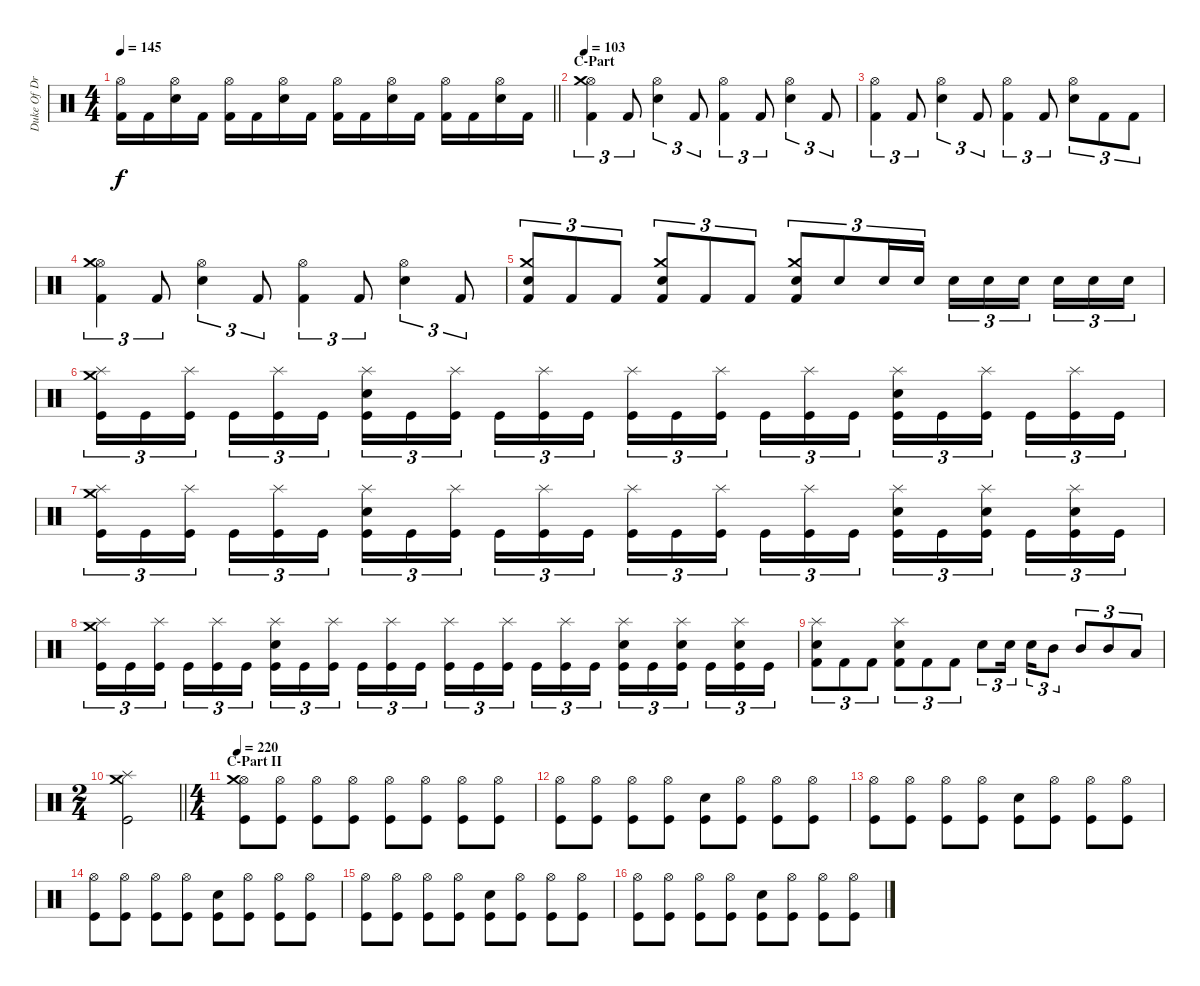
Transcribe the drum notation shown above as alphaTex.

\track ("Duke Of Drumington" "Duke Of Dr") {instrument percussion}
\staff {score}
\articulation defaults
\ts (4 4)
\tempo 145
\clef neutral
\barLineRight lightlight
\ks c
("Kick (hit) 2" "Hi-Hat (open)").16{dy f} "Kick (hit) 2".16 ("Snare (hit) 2" "Hi-Hat (open)").16 "Kick (hit) 2".16 ("Kick (hit) 2" "Hi-Hat (open)").16 "Kick (hit) 2".16 ("Snare (hit) 2" "Hi-Hat (open)").16 "Kick (hit) 2".16 ("Kick (hit) 2" "Hi-Hat (open)").16 "Kick (hit) 2".16 ("Snare (hit) 2" "Hi-Hat (open)").16 "Kick (hit) 2".16 ("Kick (hit) 2" "Hi-Hat (open)").16 "Kick (hit) 2".16 ("Snare (hit) 2" "Hi-Hat (open)").16 "Kick (hit) 2".16 |
\section ("" "C-Part")
\tempo 103
("Kick (hit) 2" "Hi-Hat (open)" "Crash medium (hit)").4{tu (3 2)} "Kick (hit) 2".8{tu (3 2)} ("Electric Snare (hit)" "Hi-Hat (open)").4{tu (3 2)} "Kick (hit) 2".8{tu (3 2)} ("Kick (hit) 2" "Hi-Hat (open)").4{tu (3 2)} "Kick (hit) 2".8{tu (3 2)} ("Electric Snare (hit)" "Hi-Hat (open)").4{tu (3 2)} "Kick (hit) 2".8{tu (3 2)} |
("Kick (hit) 2" "Hi-Hat (open)").4{tu (3 2)} "Kick (hit) 2".8{tu (3 2)} ("Electric Snare (hit)" "Hi-Hat (open)").4{tu (3 2)} "Kick (hit) 2".8{tu (3 2)} ("Kick (hit) 2" "Hi-Hat (open)").4{tu (3 2)} "Kick (hit) 2".8{tu (3 2)} ("Electric Snare (hit)" "Hi-Hat (open)").8{tu (3 2)} "Kick (hit) 2".8{tu (3 2)} "Kick (hit) 2".8{tu (3 2)} |
("Kick (hit) 2" "Hi-Hat (open)" "Crash medium (hit)").4{tu (3 2)} "Kick (hit) 2".8{tu (3 2)} ("Electric Snare (hit)" "Hi-Hat (open)").4{tu (3 2)} "Kick (hit) 2".8{tu (3 2)} ("Kick (hit) 2" "Hi-Hat (open)").4{tu (3 2)} "Kick (hit) 2".8{tu (3 2)} ("Electric Snare (hit)" "Hi-Hat (open)").4{tu (3 2)} "Kick (hit) 2".8{tu (3 2)} |
("Kick (hit) 2" "Crash medium (hit)" "Electric Snare (hit)").8{tu (3 2)} "Kick (hit) 2".8{tu (3 2)} "Kick (hit) 2".8{tu (3 2)} ("Kick (hit) 2" "Crash medium (hit)" "Electric Snare (hit)").8{tu (3 2)} "Kick (hit) 2".8{tu (3 2)} "Kick (hit) 2".8{tu (3 2)} ("Kick (hit) 2" "Crash medium (hit)" "Electric Snare (hit)").8{tu (3 2)} "Electric Snare (hit)".8{tu (3 2)} "Electric Snare (hit)".16{tu (3 2)} "Electric Snare (hit)".16{tu (3 2)} "Electric Snare (hit)".16{tu (3 2)} "Electric Snare (hit)".16{tu (3 2)} "Electric Snare (hit)".16{tu (3 2) beam splitsecondary} "Electric Snare (hit)".16{tu (3 2)} "Electric Snare (hit)".16{tu (3 2)} "Electric Snare (hit)".16{tu (3 2)} |
("Kick (hit)" "Splash (hit)" "Crash medium (hit)").16{tu (3 2)} "Kick (hit)".16{tu (3 2)} ("Kick (hit)" "Splash (hit)").16{tu (3 2) beam splitsecondary} "Kick (hit)".16{tu (3 2)} ("Kick (hit)" "Splash (hit)").16{tu (3 2)} "Kick (hit)".16{tu (3 2)} ("Kick (hit)" "Splash (hit)" "Electric Snare (hit)").16{tu (3 2)} "Kick (hit)".16{tu (3 2)} ("Kick (hit)" "Splash (hit)").16{tu (3 2) beam splitsecondary} "Kick (hit)".16{tu (3 2)} ("Kick (hit)" "Splash (hit)").16{tu (3 2)} "Kick (hit)".16{tu (3 2)} ("Kick (hit)" "Splash (hit)").16{tu (3 2)} "Kick (hit)".16{tu (3 2)} ("Kick (hit)" "Splash (hit)").16{tu (3 2) beam splitsecondary} "Kick (hit)".16{tu (3 2)} ("Kick (hit)" "Splash (hit)").16{tu (3 2)} "Kick (hit)".16{tu (3 2)} ("Kick (hit)" "Splash (hit)" "Electric Snare (hit)").16{tu (3 2)} "Kick (hit)".16{tu (3 2)} ("Kick (hit)" "Splash (hit)").16{tu (3 2) beam splitsecondary} "Kick (hit)".16{tu (3 2)} ("Kick (hit)" "Splash (hit)").16{tu (3 2)} "Kick (hit)".16{tu (3 2)} |
("Kick (hit)" "Splash (hit)" "Crash medium (hit)").16{tu (3 2)} "Kick (hit)".16{tu (3 2)} ("Kick (hit)" "Splash (hit)").16{tu (3 2) beam splitsecondary} "Kick (hit)".16{tu (3 2)} ("Kick (hit)" "Splash (hit)").16{tu (3 2)} "Kick (hit)".16{tu (3 2)} ("Kick (hit)" "Splash (hit)" "Electric Snare (hit)").16{tu (3 2)} "Kick (hit)".16{tu (3 2)} ("Kick (hit)" "Splash (hit)").16{tu (3 2) beam splitsecondary} "Kick (hit)".16{tu (3 2)} ("Kick (hit)" "Splash (hit)").16{tu (3 2)} "Kick (hit)".16{tu (3 2)} ("Kick (hit)" "Splash (hit)").16{tu (3 2)} "Kick (hit)".16{tu (3 2)} ("Kick (hit)" "Splash (hit)").16{tu (3 2) beam splitsecondary} "Kick (hit)".16{tu (3 2)} ("Kick (hit)" "Splash (hit)").16{tu (3 2)} "Kick (hit)".16{tu (3 2)} ("Kick (hit)" "Splash (hit)" "Electric Snare (hit)").16{tu (3 2)} "Kick (hit)".16{tu (3 2)} ("Kick (hit)" "Splash (hit)" "Electric Snare (hit)").16{tu (3 2) beam splitsecondary} "Kick (hit)".16{tu (3 2)} ("Kick (hit)" "Splash (hit)" "Electric Snare (hit)").16{tu (3 2)} "Kick (hit)".16{tu (3 2)} |
("Kick (hit)" "Splash (hit)" "Crash medium (hit)").16{tu (3 2)} "Kick (hit)".16{tu (3 2)} ("Kick (hit)" "Splash (hit)").16{tu (3 2) beam splitsecondary} "Kick (hit)".16{tu (3 2)} ("Kick (hit)" "Splash (hit)").16{tu (3 2)} "Kick (hit)".16{tu (3 2)} ("Kick (hit)" "Splash (hit)" "Electric Snare (hit)").16{tu (3 2)} "Kick (hit)".16{tu (3 2)} ("Kick (hit)" "Splash (hit)").16{tu (3 2) beam splitsecondary} "Kick (hit)".16{tu (3 2)} ("Kick (hit)" "Splash (hit)").16{tu (3 2)} "Kick (hit)".16{tu (3 2)} ("Kick (hit)" "Splash (hit)").16{tu (3 2)} "Kick (hit)".16{tu (3 2)} ("Kick (hit)" "Splash (hit)").16{tu (3 2) beam splitsecondary} "Kick (hit)".16{tu (3 2)} ("Kick (hit)" "Splash (hit)").16{tu (3 2)} "Kick (hit)".16{tu (3 2)} ("Kick (hit)" "Splash (hit)" "Electric Snare (hit)").16{tu (3 2)} "Kick (hit)".16{tu (3 2)} ("Kick (hit)" "Splash (hit)" "Electric Snare (hit)").16{tu (3 2) beam splitsecondary} "Kick (hit)".16{tu (3 2)} ("Kick (hit)" "Splash (hit)" "Electric Snare (hit)").16{tu (3 2)} "Kick (hit)".16{tu (3 2)} |
("Kick (hit) 2" "Electric Snare (hit)" "Splash (hit)").8{tu (3 2)} "Kick (hit) 2".8{tu (3 2)} "Kick (hit) 2".8{tu (3 2)} ("Kick (hit) 2" "Electric Snare (hit)" "Splash (hit)").8{tu (3 2)} "Kick (hit) 2".8{tu (3 2)} "Kick (hit) 2".8{tu (3 2)} "Electric Snare (hit)".8{tu (3 2)} "Electric Snare (hit)".16{tu (3 2) beam splitsecondary} "Electric Snare (hit)".16{tu (3 2)} "Mid Tom (hit)".8{tu (3 2)} "Mid Tom (hit)".8{tu (3 2)} "Mid Tom (hit)".8{tu (3 2)} "Low Tom (hit)".8{tu (3 2)} |
\ts (2 4)
\barLineRight lightlight
("Kick (hit)" "Splash (hit)" "Crash medium (hit)").2 |
\ts (4 4)
\section ("" "C-Part II")
\tempo 220
("Kick (hit)" "Hi-Hat (open)" "Crash medium (hit)").8 ("Kick (hit)" "Hi-Hat (open)").8 ("Kick (hit)" "Hi-Hat (open)").8 ("Kick (hit)" "Hi-Hat (open)").8 ("Kick (hit)" "Hi-Hat (open)").8 ("Kick (hit)" "Hi-Hat (open)").8 ("Kick (hit)" "Hi-Hat (open)").8 ("Kick (hit)" "Hi-Hat (open)").8 |
("Kick (hit)" "Hi-Hat (open)").8 ("Kick (hit)" "Hi-Hat (open)").8 ("Kick (hit)" "Hi-Hat (open)").8 ("Kick (hit)" "Hi-Hat (open)").8 ("Kick (hit)" "Electric Snare (hit)").8 ("Kick (hit)" "Hi-Hat (open)").8 ("Kick (hit)" "Hi-Hat (open)").8 ("Kick (hit)" "Hi-Hat (open)").8 |
("Kick (hit)" "Hi-Hat (open)").8 ("Kick (hit)" "Hi-Hat (open)").8 ("Kick (hit)" "Hi-Hat (open)").8 ("Kick (hit)" "Hi-Hat (open)").8 ("Kick (hit)" "Electric Snare (hit)").8 ("Kick (hit)" "Hi-Hat (open)").8 ("Kick (hit)" "Hi-Hat (open)").8 ("Kick (hit)" "Hi-Hat (open)").8 |
("Kick (hit)" "Hi-Hat (open)").8 ("Kick (hit)" "Hi-Hat (open)").8 ("Kick (hit)" "Hi-Hat (open)").8 ("Kick (hit)" "Hi-Hat (open)").8 ("Kick (hit)" "Electric Snare (hit)").8 ("Kick (hit)" "Hi-Hat (open)").8 ("Kick (hit)" "Hi-Hat (open)").8 ("Kick (hit)" "Hi-Hat (open)").8 |
("Kick (hit)" "Hi-Hat (open)").8 ("Kick (hit)" "Hi-Hat (open)").8 ("Kick (hit)" "Hi-Hat (open)").8 ("Kick (hit)" "Hi-Hat (open)").8 ("Kick (hit)" "Electric Snare (hit)").8 ("Kick (hit)" "Hi-Hat (open)").8 ("Kick (hit)" "Hi-Hat (open)").8 ("Kick (hit)" "Hi-Hat (open)").8 |
("Kick (hit)" "Hi-Hat (open)").8 ("Kick (hit)" "Hi-Hat (open)").8 ("Kick (hit)" "Hi-Hat (open)").8 ("Kick (hit)" "Hi-Hat (open)").8 ("Kick (hit)" "Electric Snare (hit)").8 ("Kick (hit)" "Hi-Hat (open)").8 ("Kick (hit)" "Hi-Hat (open)").8 ("Kick (hit)" "Hi-Hat (open)").8
